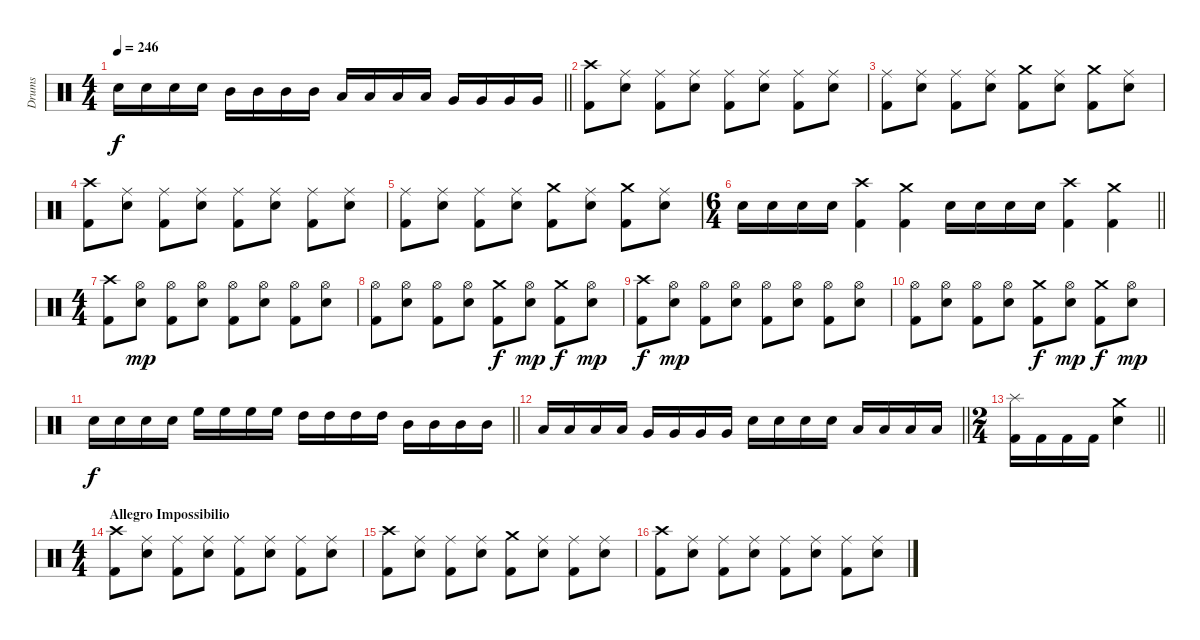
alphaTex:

\track ("Drums" "Drums") {instrument percussion}
\staff {score}
\articulation defaults
\ts (4 4)
\tempo 246
\clef neutral
\barLineRight lightlight
\ks c "Snare (hit) 2".16{dy f} "Snare (hit) 2".16 "Snare (hit) 2".16 "Snare (hit) 2".16 "Mid Tom (hit)".16 "Mid Tom (hit)".16 "Mid Tom (hit)".16 "Mid Tom (hit)".16 "Low Tom (hit)".16 "Low Tom (hit)".16 "Low Tom (hit)".16 "Low Tom (hit)".16 "Very Low Tom (hit)".16 "Very Low Tom (hit)".16 "Very Low Tom (hit)".16 "Very Low Tom (hit)".16
|
\section ("" "")
("Crash high (hit)" "Kick (hit) 2").8 ("Ride (middle)" "Snare (hit) 2").8 ("Ride (middle)" "Kick (hit) 2").8 ("Ride (middle)" "Snare (hit) 2").8 ("Ride (middle)" "Kick (hit) 2").8 ("Ride (middle)" "Snare (hit) 2").8 ("Ride (middle)" "Kick (hit) 2").8 ("Ride (middle)" "Snare (hit) 2").8 |
("Ride (middle)" "Kick (hit) 2").8 ("Ride (middle)" "Snare (hit) 2").8 ("Ride (middle)" "Kick (hit) 2").8 ("Ride (middle)" "Snare (hit) 2").8 ("Crash medium (hit)" "Kick (hit) 2").8 ("Ride (middle)" "Snare (hit) 2").8 ("Crash medium (hit)" "Kick (hit) 2").8 ("Ride (middle)" "Snare (hit) 2").8 |
("Crash high (hit)" "Kick (hit) 2").8 ("Ride (middle)" "Snare (hit) 2").8 ("Ride (middle)" "Kick (hit) 2").8 ("Ride (middle)" "Snare (hit) 2").8 ("Ride (middle)" "Kick (hit) 2").8 ("Ride (middle)" "Snare (hit) 2").8 ("Ride (middle)" "Kick (hit) 2").8 ("Ride (middle)" "Snare (hit) 2").8 |
("Ride (middle)" "Kick (hit) 2").8 ("Ride (middle)" "Snare (hit) 2").8 ("Ride (middle)" "Kick (hit) 2").8 ("Ride (middle)" "Snare (hit) 2").8 ("Crash medium (hit)" "Kick (hit) 2").8 ("Ride (middle)" "Snare (hit) 2").8 ("Crash medium (hit)" "Kick (hit) 2").8 ("Ride (middle)" "Snare (hit) 2").8 |
\ts (6 4)
\barLineRight lightlight "Snare (hit) 2".16 "Snare (hit) 2".16 "Snare (hit) 2".16 "Snare (hit) 2".16
("Crash high (hit)" "Kick (hit) 2").4 ("Crash medium (hit)" "Kick (hit) 2").4 "Snare (hit) 2".16 "Snare (hit) 2".16 "Snare (hit) 2".16 "Snare (hit) 2".16 ("Crash high (hit)" "Kick (hit) 2").4 ("Crash medium (hit)" "Kick (hit) 2").4 |
\ts (4 4)
\section ("" "")
("Crash high (hit)" "Kick (hit) 2").8 ("Hi-Hat (open)" "Snare (hit) 2").8{dy mp} ("Hi-Hat (open)" "Kick (hit) 2").8 ("Hi-Hat (open)" "Snare (hit) 2").8 ("Hi-Hat (open)" "Kick (hit) 2").8 ("Hi-Hat (open)" "Snare (hit) 2").8 ("Hi-Hat (open)" "Kick (hit) 2").8 ("Hi-Hat (open)" "Snare (hit) 2").8 |
("Hi-Hat (open)" "Kick (hit) 2").8 ("Hi-Hat (open)" "Snare (hit) 2").8 ("Hi-Hat (open)" "Kick (hit) 2").8 ("Hi-Hat (open)" "Snare (hit) 2").8 ("Crash medium (hit)" "Kick (hit) 2").8{dy f} ("Hi-Hat (open)" "Snare (hit) 2").8{dy mp} ("Crash medium (hit)" "Kick (hit) 2").8{dy f} ("Hi-Hat (open)" "Snare (hit) 2").8{dy mp} |
("Crash high (hit)" "Kick (hit) 2").8{dy f} ("Hi-Hat (open)" "Snare (hit) 2").8{dy mp} ("Hi-Hat (open)" "Kick (hit) 2").8 ("Hi-Hat (open)" "Snare (hit) 2").8 ("Hi-Hat (open)" "Kick (hit) 2").8 ("Hi-Hat (open)" "Snare (hit) 2").8 ("Hi-Hat (open)" "Kick (hit) 2").8 ("Hi-Hat (open)" "Snare (hit) 2").8 |
("Hi-Hat (open)" "Kick (hit) 2").8 ("Hi-Hat (open)" "Snare (hit) 2").8 ("Hi-Hat (open)" "Kick (hit) 2").8 ("Hi-Hat (open)" "Snare (hit) 2").8 ("Crash medium (hit)" "Kick (hit) 2").8{dy f} ("Hi-Hat (open)" "Snare (hit) 2").8{dy mp} ("Crash medium (hit)" "Kick (hit) 2").8{dy f} ("Hi-Hat (open)" "Snare (hit) 2").8{dy mp} |
\barLineRight lightlight "Snare (hit) 2".16{dy f} "Snare (hit) 2".16 "Snare (hit) 2".16 "Snare (hit) 2".16 "High Floor Tom (hit)".16 "High Floor Tom (hit)".16 "High Floor Tom (hit)".16 "High Floor Tom (hit)".16 "High Tom (hit)".16 "High Tom (hit)".16 "High Tom (hit)".16 "High Tom (hit)".16 "Mid Tom (hit)".16 "Mid Tom (hit)".16 "Mid Tom (hit)".16 "Mid Tom (hit)".16
|
\barLineRight lightlight "Low Tom (hit)".16 "Low Tom (hit)".16 "Low Tom (hit)".16 "Low Tom (hit)".16 "Very Low Tom (hit)".16 "Very Low Tom (hit)".16 "Very Low Tom (hit)".16 "Very Low Tom (hit)".16 "Snare (hit) 2".16 "Snare (hit) 2".16 "Snare (hit) 2".16 "Snare (hit) 2".16 "Low Floor Tom (hit)".16 "Low Floor Tom (hit)".16 "Low Floor Tom (hit)".16 "Low Floor Tom (hit)".16
|
\ts (2 4)
\barLineRight lightlight
("Splash (hit)" "Kick (hit) 2").16 "Kick (hit) 2".16 "Kick (hit) 2".16 "Kick (hit) 2".16 ("Crash medium (hit)" "Snare (hit) 2").4 |
\ts (4 4)
\section ("" "Allegro Impossibilio")
("Crash high (hit)" "Kick (hit) 2").8 ("Ride (middle)" "Snare (hit) 2").8 ("Ride (middle)" "Kick (hit) 2").8 ("Ride (middle)" "Snare (hit) 2").8 ("Ride (middle)" "Kick (hit) 2").8 ("Ride (middle)" "Snare (hit) 2").8 ("Ride (middle)" "Kick (hit) 2").8 ("Ride (middle)" "Snare (hit) 2").8 |
("Crash high (hit)" "Kick (hit) 2").8 ("Ride (middle)" "Snare (hit) 2").8 ("Ride (middle)" "Kick (hit) 2").8 ("Ride (middle)" "Snare (hit) 2").8 ("Crash medium (hit)" "Kick (hit) 2").8 ("Ride (middle)" "Snare (hit) 2").8 ("Ride (middle)" "Kick (hit) 2").8 ("Ride (middle)" "Snare (hit) 2").8 |
("Crash high (hit)" "Kick (hit) 2").8 ("Ride (middle)" "Snare (hit) 2").8 ("Ride (middle)" "Kick (hit) 2").8 ("Ride (middle)" "Snare (hit) 2").8 ("Ride (middle)" "Kick (hit) 2").8 ("Ride (middle)" "Snare (hit) 2").8 ("Ride (middle)" "Kick (hit) 2").8 ("Ride (middle)" "Snare (hit) 2").8
